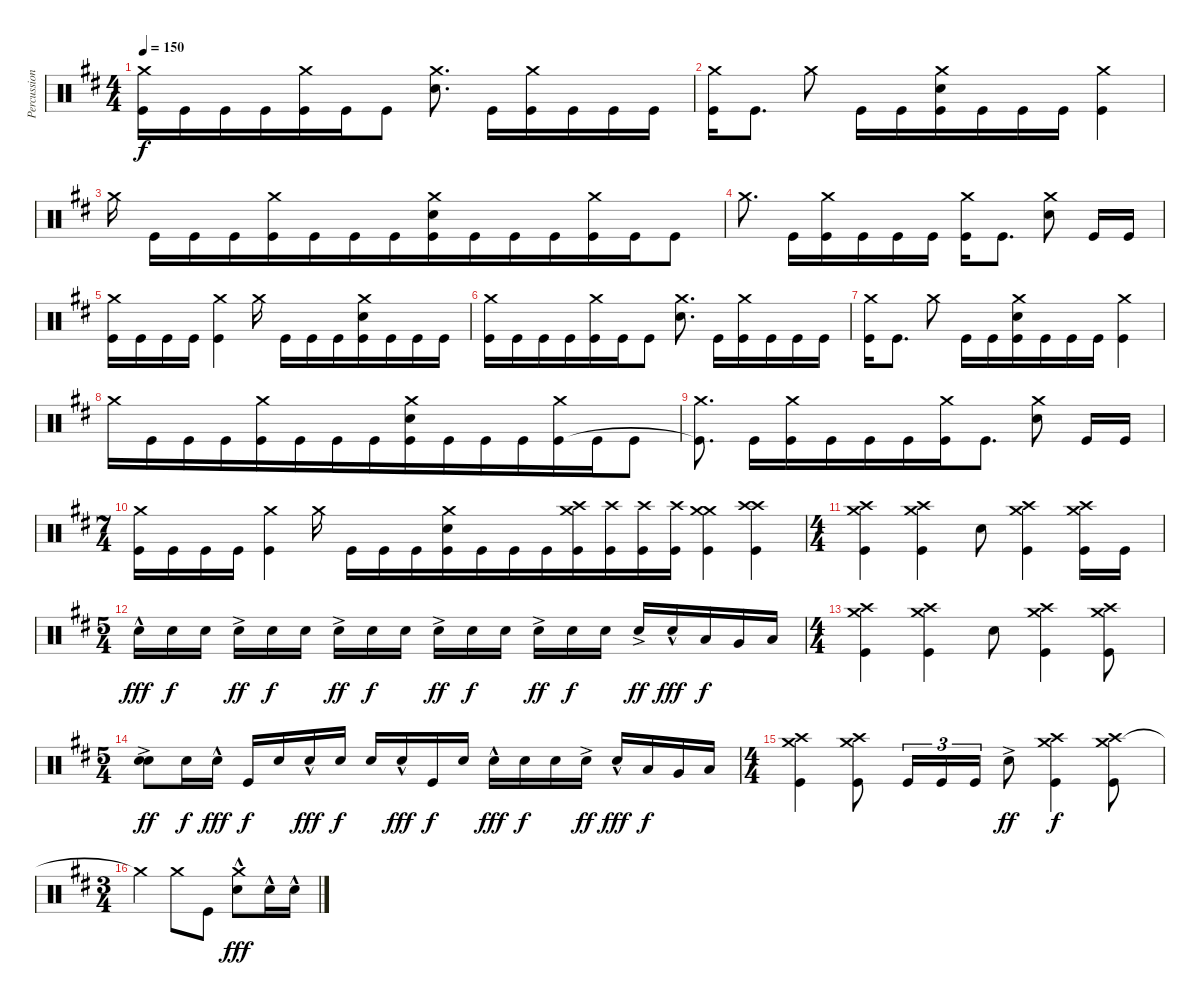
\track ("Percussion" "Percussion") {instrument percussion}
\staff {score}
\articulation defaults
\ts (4 4)
\tempo 150
\clef neutral
\ks bminor
("Crash medium (hit)" "Kick (hit)").16{dy f} "Kick (hit)".16 "Kick (hit)".16 "Kick (hit)".16{beam merge} ("Crash medium (hit)" "Kick (hit)").16 "Kick (hit)".16 "Kick (hit)".8 ("Crash medium (hit)" "Electric Snare (hit)").8{d beam split} "Kick (hit)".16{beam merge} ("Crash medium (hit)" "Kick (hit)").16 "Kick (hit)".16 "Kick (hit)".16 "Kick (hit)".16 |
("Crash medium (hit)" "Kick (hit)").16 "Kick (hit)".8{d} "Crash medium (hit)".8{beam split} "Kick (hit)".16 "Kick (hit)".16{beam merge} ("Crash medium (hit)" "Electric Snare (hit)" "Kick (hit)").16 "Kick (hit)".16 "Kick (hit)".16 "Kick (hit)".16 ("Crash medium (hit)" "Kick (hit)").4 |
"Crash medium (hit)".16{beam split} "Kick (hit)".16 "Kick (hit)".16 "Kick (hit)".16{beam merge} ("Crash medium (hit)" "Kick (hit)").16 "Kick (hit)".16 "Kick (hit)".16 "Kick (hit)".16{beam merge} ("Crash medium (hit)" "Electric Snare (hit)" "Kick (hit)").16 "Kick (hit)".16 "Kick (hit)".16 "Kick (hit)".16{beam merge} ("Crash medium (hit)" "Kick (hit)").16 "Kick (hit)".16 "Kick (hit)".8 |
"Crash medium (hit)".8{d beam split} "Kick (hit)".16{beam merge} ("Crash medium (hit)" "Kick (hit)").16{beam merge} "Kick (hit)".16 "Kick (hit)".16 "Kick (hit)".16 ("Crash medium (hit)" "Kick (hit)").16 "Kick (hit)".8{d} ("Crash medium (hit)" "Electric Snare (hit)").8{beam split} "Kick (hit)".16 "Kick (hit)".16 |
("Crash medium (hit)" "Kick (hit)").16 "Kick (hit)".16 "Kick (hit)".16 "Kick (hit)".16 ("Crash medium (hit)" "Kick (hit)").4 "Crash medium (hit)".16{beam split} "Kick (hit)".16 "Kick (hit)".16 "Kick (hit)".16{beam merge} ("Crash medium (hit)" "Electric Snare (hit)" "Kick (hit)").16 "Kick (hit)".16 "Kick (hit)".16 "Kick (hit)".16 |
("Crash medium (hit)" "Kick (hit)").16 "Kick (hit)".16 "Kick (hit)".16 "Kick (hit)".16{beam merge} ("Crash medium (hit)" "Kick (hit)").16 "Kick (hit)".16 "Kick (hit)".8 ("Crash medium (hit)" "Electric Snare (hit)").8{d beam split} "Kick (hit)".16{beam merge} ("Crash medium (hit)" "Kick (hit)").16{beam merge} "Kick (hit)".16 "Kick (hit)".16 "Kick (hit)".16 |
("Crash medium (hit)" "Kick (hit)").16 "Kick (hit)".8{d} "Crash medium (hit)".8{beam split} "Kick (hit)".16 "Kick (hit)".16{beam merge} ("Crash medium (hit)" "Electric Snare (hit)" "Kick (hit)").16 "Kick (hit)".16{beam merge} "Kick (hit)".16 "Kick (hit)".16 ("Crash medium (hit)" "Kick (hit)").4 |
"Crash medium (hit)".16 "Kick (hit)".16 "Kick (hit)".16 "Kick (hit)".16{beam merge} ("Crash medium (hit)" "Kick (hit)").16 "Kick (hit)".16 "Kick (hit)".16 "Kick (hit)".16{beam merge} ("Crash medium (hit)" "Electric Snare (hit)" "Kick (hit)").16 "Kick (hit)".16 "Kick (hit)".16 "Kick (hit)".16{beam merge} ("Crash medium (hit)" "Kick (hit)").16 "Kick (hit)".16 "Kick (hit)".8 |
("Crash medium (hit)" "Kick (hit)"{t}).8{d beam split} "Kick (hit)".16{beam merge} ("Crash medium (hit)" "Kick (hit)").16 "Kick (hit)".16 "Kick (hit)".16 "Kick (hit)".16{beam merge} ("Crash medium (hit)" "Kick (hit)").16 "Kick (hit)".8{d} ("Crash medium (hit)" "Electric Snare (hit)").8{beam split} "Kick (hit)".16 "Kick (hit)".16 |
\ts (7 4)
("Crash medium (hit)" "Kick (hit)").16 "Kick (hit)".16 "Kick (hit)".16 "Kick (hit)".16{beam merge} ("Crash medium (hit)" "Kick (hit)").4 "Crash medium (hit)".16{beam split} "Kick (hit)".16 "Kick (hit)".16 "Kick (hit)".16{beam merge} ("Crash medium (hit)" "Electric Snare (hit)" "Kick (hit)").16 "Kick (hit)".16 "Kick (hit)".16 "Kick (hit)".16{beam merge} ("Crash medium (hit)" "Crash high (hit)" "Kick (hit)").16 ("Crash high (hit)" "Kick (hit)").16 ("Crash high (hit)" "Kick (hit)").16 ("Crash high (hit)" "Kick (hit)").16 ("Crash medium (hit)" "Crash medium (hit)" "Kick (hit)").4 ("Crash high (hit)" "Crash high (hit)" "Kick (hit)").4 |
\ts (4 4)
("Crash medium (hit)" "Crash high (hit)" "Kick (hit)").4 ("Crash medium (hit)" "Crash high (hit)" "Kick (hit)").4 "Electric Snare (hit)".8 ("Crash medium (hit)" "Crash high (hit)" "Kick (hit)").4 ("Crash medium (hit)" "Crash high (hit)" "Kick (hit)").16 "Kick (hit)".16 |
\ts (5 4)
"Electric Snare (hit)"{hac}.16{dy fff volume 11} "Electric Snare (hit)".16{dy f} "Electric Snare (hit)".16{beam split} "Electric Snare (hit)"{ac}.16{dy ff beam merge} "Electric Snare (hit)".16{dy f} "Electric Snare (hit)".16{beam split} "Electric Snare (hit)"{ac}.16{dy ff} "Electric Snare (hit)".16{dy f beam merge} "Electric Snare (hit)".16{beam split} "Electric Snare (hit)"{ac}.16{dy ff} "Electric Snare (hit)".16{dy f} "Electric Snare (hit)".16 "Electric Snare (hit)"{ac}.16{dy ff} "Electric Snare (hit)".16{dy f} "Electric Snare (hit)".16{beam split} "Electric Snare (hit)"{ac}.16{dy ff beam merge} "Electric Snare (hit)"{hac}.16{dy fff} "Low Tom (hit)".16{dy f volume 13} "Very Low Tom (hit)".16 "Low Floor Tom (hit)".16 |
\ts (4 4)
("Crash medium (hit)" "Crash high (hit)" "Kick (hit)").4 ("Crash medium (hit)" "Crash high (hit)" "Kick (hit)").4 "Electric Snare (hit)".8 ("Crash medium (hit)" "Crash high (hit)" "Kick (hit)").4 ("Crash medium (hit)" "Crash high (hit)" "Kick (hit)").8 |
\ts (5 4)
("Electric Snare (hit)"{ac} "Electric Snare (hit)"{ac}).8{dy ff} "Electric Snare (hit)".16{dy f} "Electric Snare (hit)"{hac}.16{dy fff} "Kick (hit)".16{dy f} "Electric Snare (hit)".16 "Electric Snare (hit)"{hac}.16{dy fff} "Electric Snare (hit)".16{dy f} "Electric Snare (hit)".16 "Electric Snare (hit)"{hac}.16{dy fff} "Kick (hit)".16{dy f} "Electric Snare (hit)".16 "Electric Snare (hit)"{hac}.16{dy fff} "Electric Snare (hit)".16{dy f} "Electric Snare (hit)".16 "Electric Snare (hit)"{ac}.16{dy ff} "Electric Snare (hit)"{hac}.16{dy fff} "Low Tom (hit)".16{dy f} "Very Low Tom (hit)".16 "Low Floor Tom (hit)".16 |
\ts (4 4)
("Crash medium (hit)" "Crash high (hit)" "Kick (hit)").4 ("Crash medium (hit)" "Crash high (hit)" "Kick (hit)").8{beam split} "Kick (hit)".16{tu (3 2) volume 14} "Kick (hit)".16{tu (3 2)} "Kick (hit)".16{tu (3 2)} "Electric Snare (hit)"{ac}.8{dy ff} ("Crash medium (hit)" "Crash high (hit)" "Kick (hit)").4{dy f volume 13} ("Crash medium (hit)" "Crash high (hit)" "Kick (hit)").8 |
\ts (3 4)
"Crash medium (hit)"{t}.4 "Crash medium (hit)".8 "Kick (hit)".8 ("Crash medium (hit)" "Electric Snare (hit)"{hac}).8{dy fff} "Electric Snare (hit)"{hac}.16 "Electric Snare (hit)"{hac}.16
